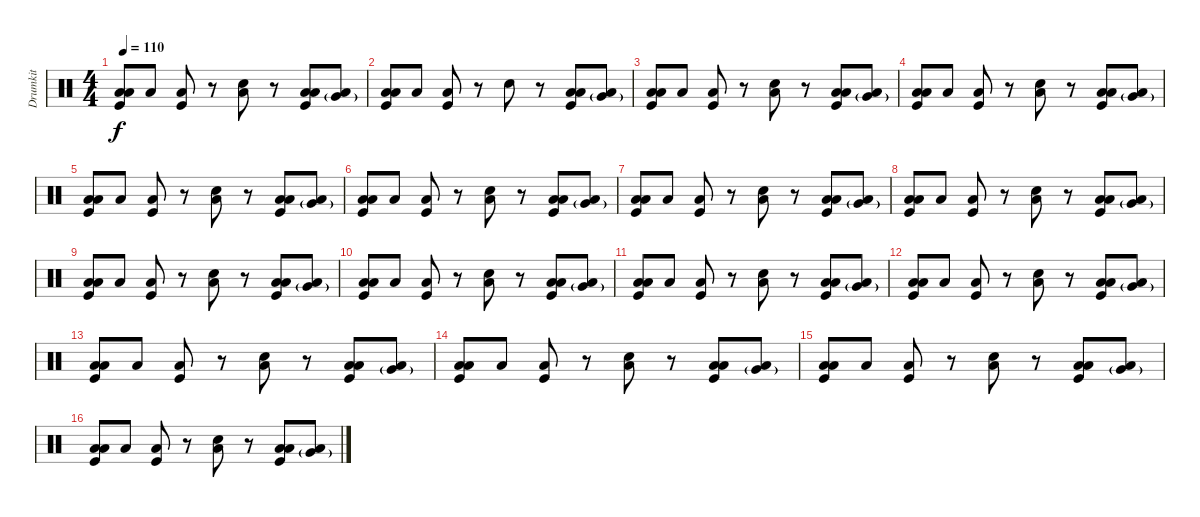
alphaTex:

\track ("Drumkit" "Drumkit") {instrument percussion}
\staff {score}
\articulation defaults
\ts (4 4)
\tempo 110
\clef neutral
\ks c
("Low Tom (hit)" "Low Floor Tom (hit)" "Kick (hit)").8{dy f} "Low Floor Tom (hit)".8 ("Low Tom (hit)" "Kick (hit)").8 r.8 ("Low Floor Tom (hit)" "Snare (hit) 2").8 r.8 ("Low Tom (hit)" "Low Floor Tom (hit)" "Kick (hit)").8 ("Very Low Tom (hit)"{g} "Low Floor Tom (hit)").8 |
("Low Tom (hit)" "Low Floor Tom (hit)" "Kick (hit)").8 "Low Floor Tom (hit)".8 ("Low Tom (hit)" "Kick (hit)").8 r.8 "Snare (hit) 2".8 r.8 ("Low Tom (hit)" "Low Floor Tom (hit)" "Kick (hit)").8 ("Very Low Tom (hit)"{g} "Low Floor Tom (hit)").8 |
("Low Tom (hit)" "Low Floor Tom (hit)" "Kick (hit)").8 "Low Floor Tom (hit)".8 ("Low Tom (hit)" "Kick (hit)").8 r.8 ("Low Floor Tom (hit)" "Snare (hit) 2").8 r.8 ("Low Tom (hit)" "Low Floor Tom (hit)" "Kick (hit)").8 ("Very Low Tom (hit)"{g} "Low Floor Tom (hit)").8 |
("Low Tom (hit)" "Low Floor Tom (hit)" "Kick (hit)").8 "Low Floor Tom (hit)".8 ("Low Tom (hit)" "Kick (hit)").8 r.8 ("Low Floor Tom (hit)" "Snare (hit) 2").8 r.8 ("Low Tom (hit)" "Low Floor Tom (hit)" "Kick (hit)").8 ("Very Low Tom (hit)"{g} "Low Floor Tom (hit)").8 |
("Low Tom (hit)" "Low Floor Tom (hit)" "Kick (hit)").8 "Low Floor Tom (hit)".8 ("Low Tom (hit)" "Kick (hit)").8 r.8 ("Low Floor Tom (hit)" "Snare (hit) 2").8 r.8 ("Low Tom (hit)" "Low Floor Tom (hit)" "Kick (hit)").8 ("Very Low Tom (hit)"{g} "Low Floor Tom (hit)").8 |
("Low Tom (hit)" "Low Floor Tom (hit)" "Kick (hit)").8 "Low Floor Tom (hit)".8 ("Low Tom (hit)" "Kick (hit)").8 r.8 ("Low Floor Tom (hit)" "Snare (hit) 2").8 r.8 ("Low Tom (hit)" "Low Floor Tom (hit)" "Kick (hit)").8 ("Very Low Tom (hit)"{g} "Low Floor Tom (hit)").8 |
("Low Tom (hit)" "Low Floor Tom (hit)" "Kick (hit)").8 "Low Floor Tom (hit)".8 ("Low Tom (hit)" "Kick (hit)").8 r.8 ("Low Floor Tom (hit)" "Snare (hit) 2").8 r.8 ("Low Tom (hit)" "Low Floor Tom (hit)" "Kick (hit)").8 ("Very Low Tom (hit)"{g} "Low Floor Tom (hit)").8 |
("Low Tom (hit)" "Low Floor Tom (hit)" "Kick (hit)").8 "Low Floor Tom (hit)".8 ("Low Tom (hit)" "Kick (hit)").8 r.8 ("Low Floor Tom (hit)" "Snare (hit) 2").8 r.8 ("Low Tom (hit)" "Low Floor Tom (hit)" "Kick (hit)").8 ("Very Low Tom (hit)"{g} "Low Floor Tom (hit)").8 |
("Low Tom (hit)" "Low Floor Tom (hit)" "Kick (hit)").8 "Low Floor Tom (hit)".8 ("Low Tom (hit)" "Kick (hit)").8 r.8 ("Low Floor Tom (hit)" "Snare (hit) 2").8 r.8 ("Low Tom (hit)" "Low Floor Tom (hit)" "Kick (hit)").8 ("Very Low Tom (hit)"{g} "Low Floor Tom (hit)").8 |
("Low Tom (hit)" "Low Floor Tom (hit)" "Kick (hit)").8 "Low Floor Tom (hit)".8 ("Low Tom (hit)" "Kick (hit)").8 r.8 ("Low Floor Tom (hit)" "Snare (hit) 2").8 r.8 ("Low Tom (hit)" "Low Floor Tom (hit)" "Kick (hit)").8 ("Very Low Tom (hit)"{g} "Low Floor Tom (hit)").8 |
("Low Tom (hit)" "Low Floor Tom (hit)" "Kick (hit)").8 "Low Floor Tom (hit)".8 ("Low Tom (hit)" "Kick (hit)").8 r.8 ("Low Floor Tom (hit)" "Snare (hit) 2").8 r.8 ("Low Tom (hit)" "Low Floor Tom (hit)" "Kick (hit)").8 ("Very Low Tom (hit)"{g} "Low Floor Tom (hit)").8 |
("Low Tom (hit)" "Low Floor Tom (hit)" "Kick (hit)").8 "Low Floor Tom (hit)".8 ("Low Tom (hit)" "Kick (hit)").8 r.8 ("Low Floor Tom (hit)" "Snare (hit) 2").8 r.8 ("Low Tom (hit)" "Low Floor Tom (hit)" "Kick (hit)").8 ("Very Low Tom (hit)"{g} "Low Floor Tom (hit)").8 |
("Low Tom (hit)" "Low Floor Tom (hit)" "Kick (hit)").8 "Low Floor Tom (hit)".8 ("Low Tom (hit)" "Kick (hit)").8 r.8 ("Low Floor Tom (hit)" "Snare (hit) 2").8 r.8 ("Low Tom (hit)" "Low Floor Tom (hit)" "Kick (hit)").8 ("Very Low Tom (hit)"{g} "Low Floor Tom (hit)").8 |
("Low Tom (hit)" "Low Floor Tom (hit)" "Kick (hit)").8 "Low Floor Tom (hit)".8 ("Low Tom (hit)" "Kick (hit)").8 r.8 ("Low Floor Tom (hit)" "Snare (hit) 2").8 r.8 ("Low Tom (hit)" "Low Floor Tom (hit)" "Kick (hit)").8 ("Very Low Tom (hit)"{g} "Low Floor Tom (hit)").8 |
("Low Tom (hit)" "Low Floor Tom (hit)" "Kick (hit)").8 "Low Floor Tom (hit)".8 ("Low Tom (hit)" "Kick (hit)").8 r.8 ("Low Floor Tom (hit)" "Snare (hit) 2").8 r.8 ("Low Tom (hit)" "Low Floor Tom (hit)" "Kick (hit)").8 ("Very Low Tom (hit)"{g} "Low Floor Tom (hit)").8 |
("Low Tom (hit)" "Low Floor Tom (hit)" "Kick (hit)").8 "Low Floor Tom (hit)".8 ("Low Tom (hit)" "Kick (hit)").8 r.8 ("Low Floor Tom (hit)" "Snare (hit) 2").8 r.8 ("Low Tom (hit)" "Low Floor Tom (hit)" "Kick (hit)").8 ("Very Low Tom (hit)"{g} "Low Floor Tom (hit)").8
